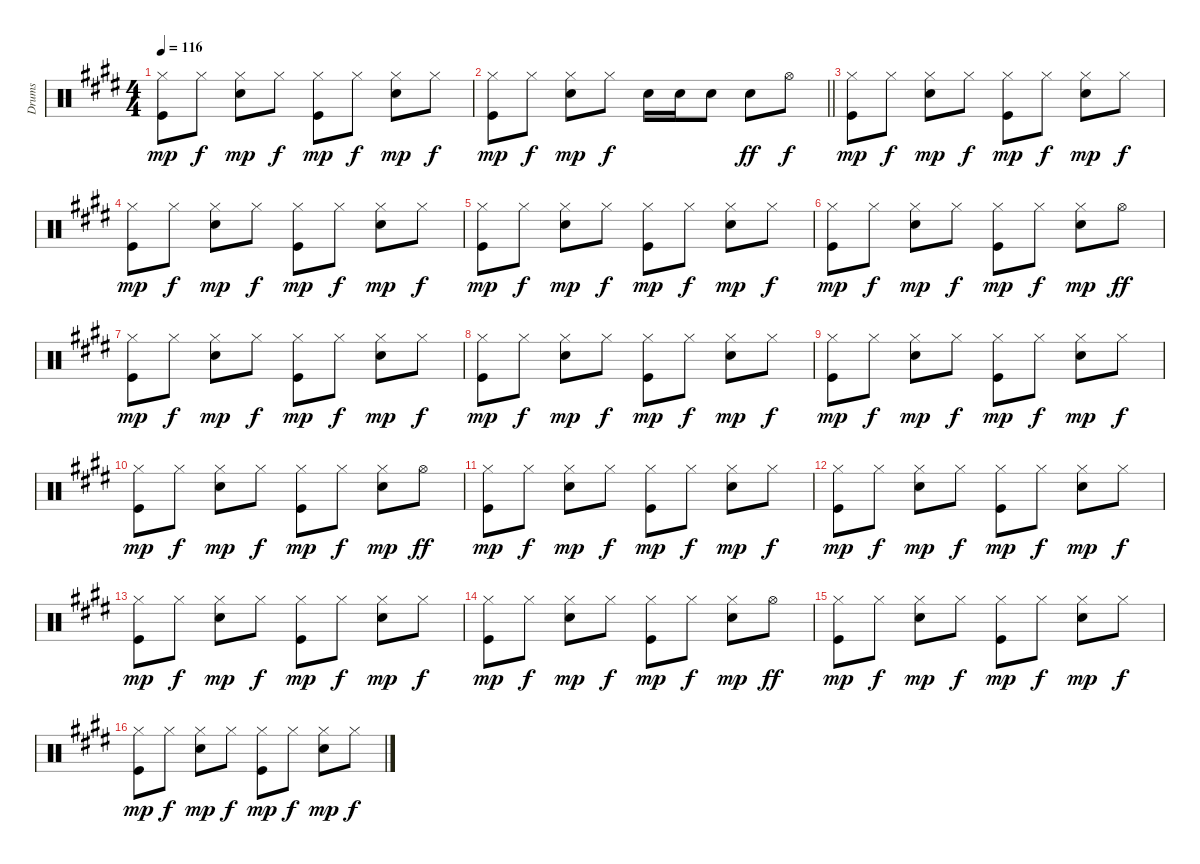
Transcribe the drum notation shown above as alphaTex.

\track ("Drums" "Drums") {instrument percussion}
\staff {score}
\articulation defaults
\ts (4 4)
\tempo 116
\clef neutral
\ks e
("Kick (hit)" "Hi-Hat (closed)").8{dy mp} "Hi-Hat (closed)".8{dy f} ("Electric Snare (hit)" "Hi-Hat (closed)").8{dy mp} "Hi-Hat (closed)".8{dy f} ("Kick (hit)" "Hi-Hat (closed)").8{dy mp} "Hi-Hat (closed)".8{dy f} ("Electric Snare (hit)" "Hi-Hat (closed)").8{dy mp} "Hi-Hat (closed)".8{dy f} |
\barLineRight lightlight
("Kick (hit)" "Hi-Hat (closed)").8{dy mp} "Hi-Hat (closed)".8{dy f} ("Electric Snare (hit)" "Hi-Hat (closed)").8{dy mp} "Hi-Hat (closed)".8{dy f} "Electric Snare (hit)".16 "Electric Snare (hit)".16 "Electric Snare (hit)".8 "Electric Snare (hit)".8{dy ff} "Hi-Hat (open)".8{dy f} |
("Kick (hit)" "Hi-Hat (closed)").8{dy mp} "Hi-Hat (closed)".8{dy f} ("Electric Snare (hit)" "Hi-Hat (closed)").8{dy mp} "Hi-Hat (closed)".8{dy f} ("Kick (hit)" "Hi-Hat (closed)").8{dy mp} "Hi-Hat (closed)".8{dy f} ("Electric Snare (hit)" "Hi-Hat (closed)").8{dy mp} "Hi-Hat (closed)".8{dy f} |
("Kick (hit)" "Hi-Hat (closed)").8{dy mp} "Hi-Hat (closed)".8{dy f} ("Electric Snare (hit)" "Hi-Hat (closed)").8{dy mp} "Hi-Hat (closed)".8{dy f} ("Kick (hit)" "Hi-Hat (closed)").8{dy mp} "Hi-Hat (closed)".8{dy f} ("Electric Snare (hit)" "Hi-Hat (closed)").8{dy mp} "Hi-Hat (closed)".8{dy f} |
("Kick (hit)" "Hi-Hat (closed)").8{dy mp} "Hi-Hat (closed)".8{dy f} ("Electric Snare (hit)" "Hi-Hat (closed)").8{dy mp} "Hi-Hat (closed)".8{dy f} ("Kick (hit)" "Hi-Hat (closed)").8{dy mp} "Hi-Hat (closed)".8{dy f} ("Electric Snare (hit)" "Hi-Hat (closed)").8{dy mp} "Hi-Hat (closed)".8{dy f} |
("Kick (hit)" "Hi-Hat (closed)").8{dy mp} "Hi-Hat (closed)".8{dy f} ("Electric Snare (hit)" "Hi-Hat (closed)").8{dy mp} "Hi-Hat (closed)".8{dy f} ("Kick (hit)" "Hi-Hat (closed)").8{dy mp} "Hi-Hat (closed)".8{dy f} ("Electric Snare (hit)" "Hi-Hat (closed)").8{dy mp} "Hi-Hat (open)".8{dy ff} |
("Kick (hit)" "Hi-Hat (closed)").8{dy mp} "Hi-Hat (closed)".8{dy f} ("Electric Snare (hit)" "Hi-Hat (closed)").8{dy mp} "Hi-Hat (closed)".8{dy f} ("Kick (hit)" "Hi-Hat (closed)").8{dy mp} "Hi-Hat (closed)".8{dy f} ("Electric Snare (hit)" "Hi-Hat (closed)").8{dy mp} "Hi-Hat (closed)".8{dy f} |
("Kick (hit)" "Hi-Hat (closed)").8{dy mp} "Hi-Hat (closed)".8{dy f} ("Electric Snare (hit)" "Hi-Hat (closed)").8{dy mp} "Hi-Hat (closed)".8{dy f} ("Kick (hit)" "Hi-Hat (closed)").8{dy mp} "Hi-Hat (closed)".8{dy f} ("Electric Snare (hit)" "Hi-Hat (closed)").8{dy mp} "Hi-Hat (closed)".8{dy f} |
("Kick (hit)" "Hi-Hat (closed)").8{dy mp} "Hi-Hat (closed)".8{dy f} ("Electric Snare (hit)" "Hi-Hat (closed)").8{dy mp} "Hi-Hat (closed)".8{dy f} ("Kick (hit)" "Hi-Hat (closed)").8{dy mp} "Hi-Hat (closed)".8{dy f} ("Electric Snare (hit)" "Hi-Hat (closed)").8{dy mp} "Hi-Hat (closed)".8{dy f} |
("Kick (hit)" "Hi-Hat (closed)").8{dy mp} "Hi-Hat (closed)".8{dy f} ("Electric Snare (hit)" "Hi-Hat (closed)").8{dy mp} "Hi-Hat (closed)".8{dy f} ("Kick (hit)" "Hi-Hat (closed)").8{dy mp} "Hi-Hat (closed)".8{dy f} ("Electric Snare (hit)" "Hi-Hat (closed)").8{dy mp} "Hi-Hat (open)".8{dy ff} |
("Kick (hit)" "Hi-Hat (closed)").8{dy mp} "Hi-Hat (closed)".8{dy f} ("Electric Snare (hit)" "Hi-Hat (closed)").8{dy mp} "Hi-Hat (closed)".8{dy f} ("Kick (hit)" "Hi-Hat (closed)").8{dy mp} "Hi-Hat (closed)".8{dy f} ("Electric Snare (hit)" "Hi-Hat (closed)").8{dy mp} "Hi-Hat (closed)".8{dy f} |
("Kick (hit)" "Hi-Hat (closed)").8{dy mp} "Hi-Hat (closed)".8{dy f} ("Electric Snare (hit)" "Hi-Hat (closed)").8{dy mp} "Hi-Hat (closed)".8{dy f} ("Kick (hit)" "Hi-Hat (closed)").8{dy mp} "Hi-Hat (closed)".8{dy f} ("Electric Snare (hit)" "Hi-Hat (closed)").8{dy mp} "Hi-Hat (closed)".8{dy f} |
("Kick (hit)" "Hi-Hat (closed)").8{dy mp} "Hi-Hat (closed)".8{dy f} ("Electric Snare (hit)" "Hi-Hat (closed)").8{dy mp} "Hi-Hat (closed)".8{dy f} ("Kick (hit)" "Hi-Hat (closed)").8{dy mp} "Hi-Hat (closed)".8{dy f} ("Electric Snare (hit)" "Hi-Hat (closed)").8{dy mp} "Hi-Hat (closed)".8{dy f} |
("Kick (hit)" "Hi-Hat (closed)").8{dy mp} "Hi-Hat (closed)".8{dy f} ("Electric Snare (hit)" "Hi-Hat (closed)").8{dy mp} "Hi-Hat (closed)".8{dy f} ("Kick (hit)" "Hi-Hat (closed)").8{dy mp} "Hi-Hat (closed)".8{dy f} ("Electric Snare (hit)" "Hi-Hat (closed)").8{dy mp} "Hi-Hat (open)".8{dy ff} |
("Kick (hit)" "Hi-Hat (closed)").8{dy mp} "Hi-Hat (closed)".8{dy f} ("Electric Snare (hit)" "Hi-Hat (closed)").8{dy mp} "Hi-Hat (closed)".8{dy f} ("Kick (hit)" "Hi-Hat (closed)").8{dy mp} "Hi-Hat (closed)".8{dy f} ("Electric Snare (hit)" "Hi-Hat (closed)").8{dy mp} "Hi-Hat (closed)".8{dy f} |
("Kick (hit)" "Hi-Hat (closed)").8{dy mp} "Hi-Hat (closed)".8{dy f} ("Electric Snare (hit)" "Hi-Hat (closed)").8{dy mp} "Hi-Hat (closed)".8{dy f} ("Kick (hit)" "Hi-Hat (closed)").8{dy mp} "Hi-Hat (closed)".8{dy f} ("Electric Snare (hit)" "Hi-Hat (closed)").8{dy mp} "Hi-Hat (closed)".8{dy f}
